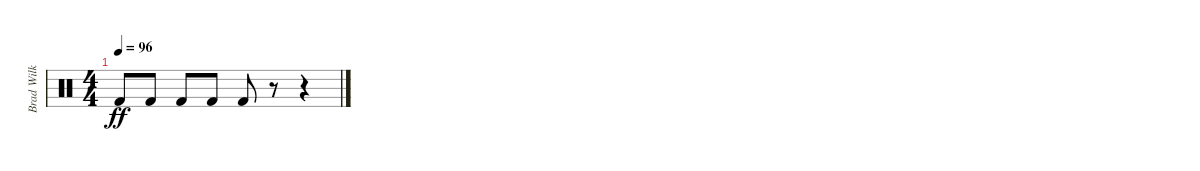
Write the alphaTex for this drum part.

\track ("Brad Wilk / Drums" "Brad Wilk ") {instrument percussion}
\staff {score}
\articulation defaults
\ts (4 4)
\tempo 96
\clef neutral
\ks c "Kick (hit) 2".8{dy ff} "Kick (hit) 2".8 "Kick (hit) 2".8 "Kick (hit) 2".8 "Kick (hit) 2".8
r.8 r.4
